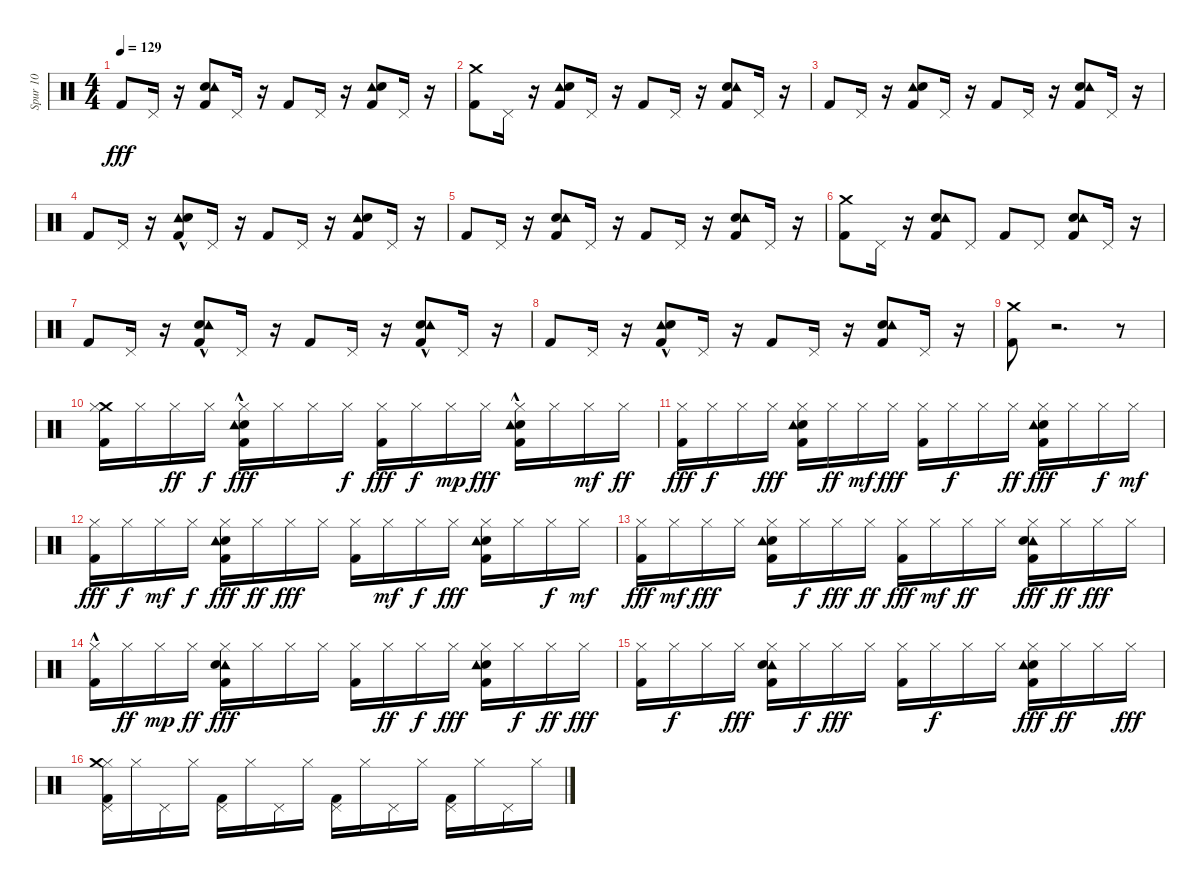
\track ("Spur 10" "Spur 10") {instrument percussion}
\staff {score}
\articulation defaults
\ts (4 4)
\tempo 129
\clef neutral
\ks c "Kick (hit) 2".8{dy fff} "Pedal Hi-Hat (hit)".16
r.16 ("Electric Snare (hit)" "Tambourine (hit)" "Kick (hit) 2").8 "Pedal Hi-Hat (hit)".16 r.16 "Kick (hit) 2".8 "Pedal Hi-Hat (hit)".16 r.16 ("Kick (hit) 2" "Tambourine (hit)" "Electric Snare (hit)").8 "Pedal Hi-Hat (hit)".16 r.16 |
("Crash medium (hit)" "Kick (hit) 2").8 "Pedal Hi-Hat (hit)".16 r.16 ("Tambourine (hit)" "Kick (hit) 2" "Electric Snare (hit)").8 "Pedal Hi-Hat (hit)".16 r.16 "Kick (hit) 2".8 "Pedal Hi-Hat (hit)".16 r.16 ("Electric Snare (hit)" "Kick (hit) 2" "Tambourine (hit)").8 "Pedal Hi-Hat (hit)".16 r.16 |
"Kick (hit) 2".8 "Pedal Hi-Hat (hit)".16 r.16 ("Tambourine (hit)" "Electric Snare (hit)" "Kick (hit) 2").8 "Pedal Hi-Hat (hit)".16 r.16 "Kick (hit) 2".8 "Pedal Hi-Hat (hit)".16 r.16 ("Kick (hit) 2" "Electric Snare (hit)" "Tambourine (hit)").8 "Pedal Hi-Hat (hit)".16 r.16 |
"Kick (hit) 2".8 "Pedal Hi-Hat (hit)".16 r.16 ("Kick (hit) 2" "Tambourine (hit)" "Electric Snare (hit)"{hac}).8 "Pedal Hi-Hat (hit)".16 r.16 "Kick (hit) 2".8 "Pedal Hi-Hat (hit)".16 r.16 ("Kick (hit) 2" "Tambourine (hit)" "Electric Snare (hit)").8 "Pedal Hi-Hat (hit)".16 r.16 |
"Kick (hit) 2".8 "Pedal Hi-Hat (hit)".16 r.16 ("Electric Snare (hit)" "Kick (hit) 2" "Tambourine (hit)").8 "Pedal Hi-Hat (hit)".16 r.16 "Kick (hit) 2".8 "Pedal Hi-Hat (hit)".16 r.16 ("Electric Snare (hit)" "Tambourine (hit)" "Kick (hit) 2").8 "Pedal Hi-Hat (hit)".16 r.16 |
("Crash medium (hit)" "Kick (hit) 2").8 "Pedal Hi-Hat (hit)".16 r.16 ("Kick (hit) 2" "Electric Snare (hit)" "Tambourine (hit)").8 "Pedal Hi-Hat (hit)".8 "Kick (hit) 2".8 "Pedal Hi-Hat (hit)".8 ("Electric Snare (hit)" "Tambourine (hit)" "Kick (hit) 2").8 "Pedal Hi-Hat (hit)".16 r.16 |
"Kick (hit) 2".8 "Pedal Hi-Hat (hit)".16 r.16 ("Electric Snare (hit)"{hac} "Tambourine (hit)" "Kick (hit) 2").8 "Pedal Hi-Hat (hit)".16 r.16 "Kick (hit) 2".8 "Pedal Hi-Hat (hit)".16 r.16 ("Electric Snare (hit)"{hac} "Tambourine (hit)" "Kick (hit) 2").8 "Pedal Hi-Hat (hit)".16 r.16 |
"Kick (hit) 2".8 "Pedal Hi-Hat (hit)".16 r.16 ("Tambourine (hit)" "Kick (hit) 2" "Electric Snare (hit)"{hac}).8 "Pedal Hi-Hat (hit)".16 r.16 "Kick (hit) 2".8 "Pedal Hi-Hat (hit)".16 r.16 ("Electric Snare (hit)" "Tambourine (hit)" "Kick (hit) 2").8 "Pedal Hi-Hat (hit)".16 r.16 |
("Crash medium (hit)" "Kick (hit) 2").8 r.2{d} r.8 |
("Crash medium (hit)" "Kick (hit) 2" "Hi-Hat (closed)").16 "Hi-Hat (closed)".16 "Hi-Hat (closed)".16{dy ff} "Hi-Hat (closed)".16{dy f} ("Kick (hit) 2"{hac} "Electric Snare (hit)" "Hi-Hat (closed)" "Tambourine (hit)").16{dy fff} "Hi-Hat (closed)".16 "Hi-Hat (closed)".16 "Hi-Hat (closed)".16{dy f} ("Kick (hit) 2" "Hi-Hat (closed)").16{dy fff} "Hi-Hat (closed)".16{dy f} "Hi-Hat (closed)".16{dy mp} "Hi-Hat (closed)".16{dy fff} ("Electric Snare (hit)"{hac} "Hi-Hat (closed)" "Kick (hit) 2" "Tambourine (hit)").16 "Hi-Hat (closed)".16 "Hi-Hat (closed)".16{dy mf} "Hi-Hat (closed)".16{dy ff} |
("Kick (hit) 2" "Hi-Hat (closed)").16{dy fff} "Hi-Hat (closed)".16{dy f} "Hi-Hat (closed)".16 "Hi-Hat (closed)".16{dy fff} ("Electric Snare (hit)" "Kick (hit) 2" "Tambourine (hit)" "Hi-Hat (closed)").16 "Hi-Hat (closed)".16{dy ff} "Hi-Hat (closed)".16{dy mf} "Hi-Hat (closed)".16{dy fff} ("Kick (hit) 2" "Hi-Hat (closed)").16 "Hi-Hat (closed)".16{dy f} "Hi-Hat (closed)".16 "Hi-Hat (closed)".16{dy ff} ("Kick (hit) 2" "Hi-Hat (closed)" "Electric Snare (hit)" "Tambourine (hit)").16{dy fff} "Hi-Hat (closed)".16 "Hi-Hat (closed)".16{dy f} "Hi-Hat (closed)".16{dy mf} |
("Hi-Hat (closed)" "Kick (hit) 2").16{dy fff} "Hi-Hat (closed)".16{dy f} "Hi-Hat (closed)".16{dy mf} "Hi-Hat (closed)".16{dy f} ("Electric Snare (hit)" "Tambourine (hit)" "Kick (hit) 2" "Hi-Hat (closed)").16{dy fff} "Hi-Hat (closed)".16{dy ff} "Hi-Hat (closed)".16{dy fff} "Hi-Hat (closed)".16 ("Hi-Hat (closed)" "Kick (hit) 2").16 "Hi-Hat (closed)".16{dy mf} "Hi-Hat (closed)".16{dy f} "Hi-Hat (closed)".16{dy fff} ("Electric Snare (hit)" "Hi-Hat (closed)" "Kick (hit) 2" "Tambourine (hit)").16 "Hi-Hat (closed)".16 "Hi-Hat (closed)".16{dy f} "Hi-Hat (closed)".16{dy mf} |
("Kick (hit) 2" "Hi-Hat (closed)").16{dy fff} "Hi-Hat (closed)".16{dy mf} "Hi-Hat (closed)".16{dy fff} "Hi-Hat (closed)".16 ("Hi-Hat (closed)" "Electric Snare (hit)" "Tambourine (hit)" "Kick (hit) 2").16 "Hi-Hat (closed)".16{dy f} "Hi-Hat (closed)".16{dy fff} "Hi-Hat (closed)".16{dy ff} ("Hi-Hat (closed)" "Kick (hit) 2").16{dy fff} "Hi-Hat (closed)".16{dy mf} "Hi-Hat (closed)".16{dy ff} "Hi-Hat (closed)".16 ("Hi-Hat (closed)" "Tambourine (hit)" "Electric Snare (hit)" "Kick (hit) 2").16{dy fff} "Hi-Hat (closed)".16{dy ff} "Hi-Hat (closed)".16{dy fff} "Hi-Hat (closed)".16 |
("Hi-Hat (closed)" "Kick (hit) 2"{hac}).16 "Hi-Hat (closed)".16{dy ff} "Hi-Hat (closed)".16{dy mp} "Hi-Hat (closed)".16{dy ff} ("Tambourine (hit)" "Kick (hit) 2" "Hi-Hat (closed)" "Electric Snare (hit)").16{dy fff} "Hi-Hat (closed)".16 "Hi-Hat (closed)".16 "Hi-Hat (closed)".16 ("Kick (hit) 2" "Hi-Hat (closed)").16 "Hi-Hat (closed)".16{dy ff} "Hi-Hat (closed)".16{dy f} "Hi-Hat (closed)".16{dy fff} ("Kick (hit) 2" "Hi-Hat (closed)" "Electric Snare (hit)" "Tambourine (hit)").16 "Hi-Hat (closed)".16{dy f} "Hi-Hat (closed)".16{dy ff} "Hi-Hat (closed)".16{dy fff} |
("Hi-Hat (closed)" "Kick (hit) 2").16 "Hi-Hat (closed)".16{dy f} "Hi-Hat (closed)".16 "Hi-Hat (closed)".16{dy fff} ("Hi-Hat (closed)" "Kick (hit) 2" "Tambourine (hit)" "Electric Snare (hit)").16 "Hi-Hat (closed)".16{dy f} "Hi-Hat (closed)".16{dy fff} "Hi-Hat (closed)".16 ("Hi-Hat (closed)" "Kick (hit) 2").16 "Hi-Hat (closed)".16{dy f} "Hi-Hat (closed)".16 "Hi-Hat (closed)".16 ("Electric Snare (hit)" "Tambourine (hit)" "Kick (hit) 2" "Hi-Hat (closed)").16{dy fff} "Hi-Hat (closed)".16{dy ff} "Hi-Hat (closed)".16 "Hi-Hat (closed)".16{dy fff} |
("Hi-Hat (closed)" "Kick (hit) 2" "Pedal Hi-Hat (hit)" "Crash medium (hit)").16 "Hi-Hat (closed)".16 "Pedal Hi-Hat (hit)".16 "Hi-Hat (closed)".16 ("Pedal Hi-Hat (hit)" "Kick (hit) 2").16 "Hi-Hat (closed)".16 "Pedal Hi-Hat (hit)".16 "Hi-Hat (closed)".16 ("Pedal Hi-Hat (hit)" "Kick (hit) 2").16 "Hi-Hat (closed)".16 "Pedal Hi-Hat (hit)".16 "Hi-Hat (closed)".16 ("Kick (hit) 2" "Pedal Hi-Hat (hit)").16 "Hi-Hat (closed)".16 "Pedal Hi-Hat (hit)".16 "Hi-Hat (closed)".16
